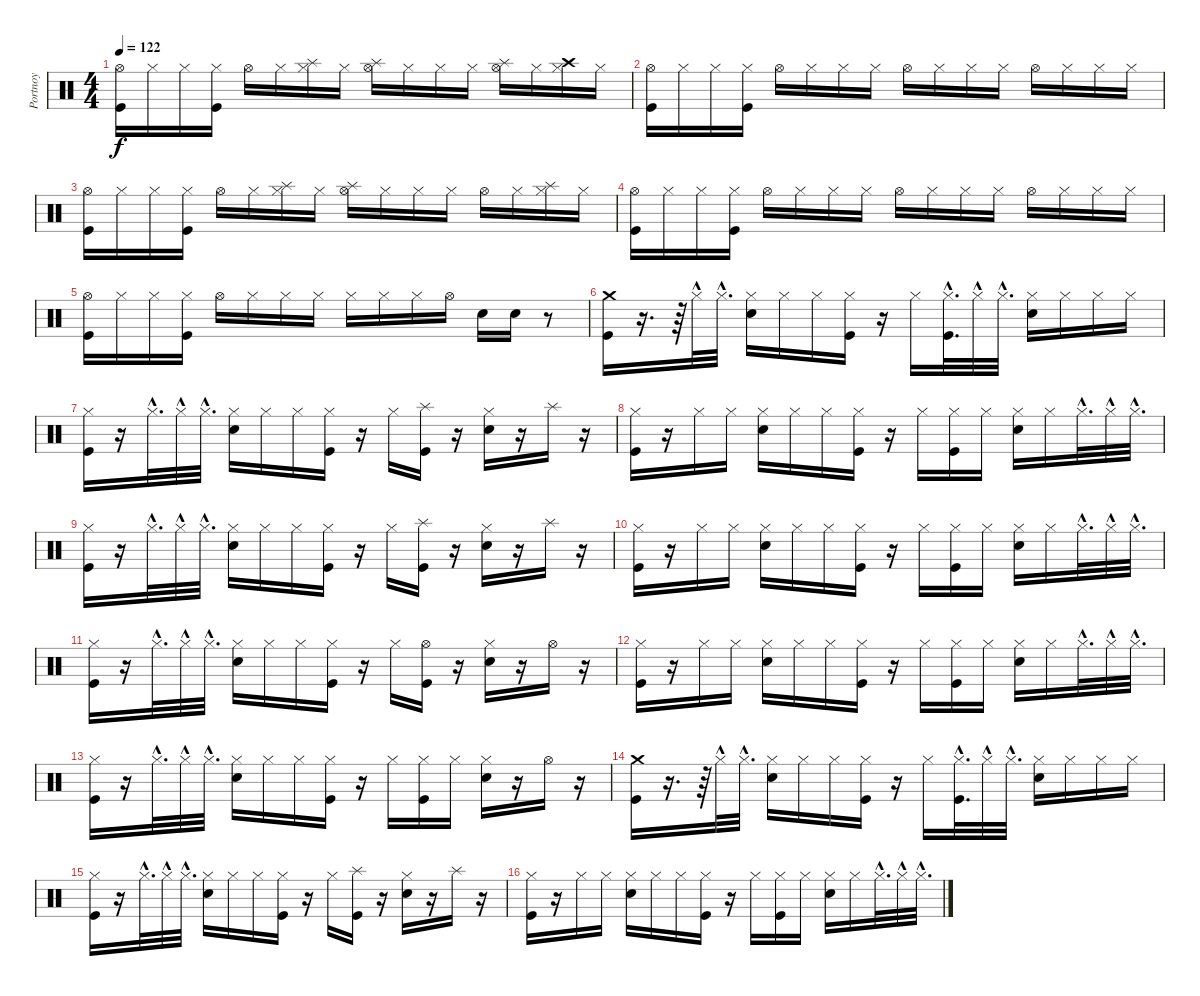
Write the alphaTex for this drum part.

\track ("Portnoy" "Portnoy") {instrument percussion}
\staff {score}
\articulation defaults
\ts (4 4)
\tempo 122
\clef neutral
\ks c
("Kick (hit)" "Hi-Hat (open)").16{dy f} "Hi-Hat (closed)".16 "Hi-Hat (closed)".16 ("Kick (hit)" "Hi-Hat (closed)").16 "Hi-Hat (open)".16 "Hi-Hat (closed)".16 ("Splash (hit)" "Hi-Hat (closed)").16 "Hi-Hat (closed)".16 ("Splash (hit)" "Hi-Hat (open)").16 "Hi-Hat (closed)".16 "Hi-Hat (closed)".16 "Hi-Hat (closed)".16 ("Splash (hit)" "Hi-Hat (open)").16 "Hi-Hat (closed)".16 ("Crash high (hit)" "Hi-Hat (closed)").16 "Hi-Hat (closed)".16 |
("Hi-Hat (open)" "Kick (hit)").16 "Hi-Hat (closed)".16 "Hi-Hat (closed)".16 ("Hi-Hat (closed)" "Kick (hit)").16 "Hi-Hat (open)".16 "Hi-Hat (closed)".16 "Hi-Hat (closed)".16 "Hi-Hat (closed)".16 "Hi-Hat (open)".16 "Hi-Hat (closed)".16 "Hi-Hat (closed)".16 "Hi-Hat (closed)".16 "Hi-Hat (open)".16 "Hi-Hat (closed)".16 "Hi-Hat (closed)".16 "Hi-Hat (closed)".16 |
("Kick (hit)" "Hi-Hat (open)").16 "Hi-Hat (closed)".16 "Hi-Hat (closed)".16 ("Kick (hit)" "Hi-Hat (closed)").16 "Hi-Hat (open)".16 "Hi-Hat (closed)".16 ("Splash (hit)" "Hi-Hat (closed)").16 "Hi-Hat (closed)".16 ("Splash (hit)" "Hi-Hat (open)").16 "Hi-Hat (closed)".16 "Hi-Hat (closed)".16 "Hi-Hat (closed)".16 "Hi-Hat (open)".16 "Hi-Hat (closed)".16 ("Splash (hit)" "Hi-Hat (closed)").16 "Hi-Hat (closed)".16 |
("Hi-Hat (open)" "Kick (hit)").16 "Hi-Hat (closed)".16 "Hi-Hat (closed)".16 ("Hi-Hat (closed)" "Kick (hit)").16 "Hi-Hat (open)".16 "Hi-Hat (closed)".16 "Hi-Hat (closed)".16 "Hi-Hat (closed)".16 "Hi-Hat (open)".16 "Hi-Hat (closed)".16 "Hi-Hat (closed)".16 "Hi-Hat (closed)".16 "Hi-Hat (open)".16 "Hi-Hat (closed)".16 "Hi-Hat (closed)".16 "Hi-Hat (closed)".16 |
("Kick (hit)" "Hi-Hat (open)").16 "Hi-Hat (closed)".16 "Hi-Hat (closed)".16 ("Kick (hit)" "Hi-Hat (closed)").16 "Hi-Hat (open)".16 "Hi-Hat (closed)".16 "Hi-Hat (closed)".16 "Hi-Hat (closed)".16 "Hi-Hat (closed)".16 "Hi-Hat (closed)".16 "Hi-Hat (closed)".16 "Hi-Hat (open)".16 "Metronome (bell)".16 "Metronome (bell)".16 r.8 |
("Crash medium (hit)" "Kick (hit)").16 r.16{d} r.64 "Hi-Hat (closed)"{hac}.32 "Hi-Hat (closed)"{hac}.32{d} ("Metronome (bell)" "Hi-Hat (closed)").16 "Hi-Hat (closed)".16 "Hi-Hat (closed)".16 ("Hi-Hat (closed)" "Kick (hit)").16 r.16 "Hi-Hat (closed)".16 ("Hi-Hat (closed)"{hac} "Kick (hit)"{hac}).32{d} "Hi-Hat (closed)"{hac}.32 "Hi-Hat (closed)"{hac}.32{d} ("Metronome (bell)" "Hi-Hat (closed)").16 "Hi-Hat (closed)".16 "Hi-Hat (closed)".16 "Hi-Hat (closed)".16 |
("Hi-Hat (closed)" "Kick (hit)").16 r.16 "Hi-Hat (closed)"{hac}.32{d} "Hi-Hat (closed)"{hac}.32 "Hi-Hat (closed)"{hac}.32{d} ("Hi-Hat (closed)" "Metronome (bell)").16 "Hi-Hat (closed)".16 "Hi-Hat (closed)".16 ("Hi-Hat (closed)" "Kick (hit)").16 r.16 "Hi-Hat (closed)".16 ("Splash (hit)" "Kick (hit)").16 r.16 ("Hi-Hat (closed)" "Metronome (bell)").16 r.16 "Splash (hit)".16 r.16 |
("Hi-Hat (closed)" "Kick (hit)").16 r.16 "Hi-Hat (closed)".16 "Hi-Hat (closed)".16 ("Metronome (bell)" "Hi-Hat (closed)").16 "Hi-Hat (closed)".16 "Hi-Hat (closed)".16 ("Hi-Hat (closed)" "Kick (hit)").16 r.16 "Hi-Hat (closed)".16 ("Hi-Hat (closed)" "Kick (hit)").16 "Hi-Hat (closed)".16 ("Metronome (bell)" "Hi-Hat (closed)").16 "Hi-Hat (closed)".16 "Hi-Hat (closed)"{hac}.32{d} "Hi-Hat (closed)"{hac}.32 "Hi-Hat (closed)"{hac}.32{d} |
("Hi-Hat (closed)" "Kick (hit)").16 r.16 "Hi-Hat (closed)"{hac}.32{d} "Hi-Hat (closed)"{hac}.32 "Hi-Hat (closed)"{hac}.32{d} ("Hi-Hat (closed)" "Metronome (bell)").16 "Hi-Hat (closed)".16 "Hi-Hat (closed)".16 ("Hi-Hat (closed)" "Kick (hit)").16 r.16 "Hi-Hat (closed)".16 ("Splash (hit)" "Kick (hit)").16 r.16 ("Hi-Hat (closed)" "Metronome (bell)").16 r.16 "Splash (hit)".16 r.16 |
("Hi-Hat (closed)" "Kick (hit)").16 r.16 "Hi-Hat (closed)".16 "Hi-Hat (closed)".16 ("Metronome (bell)" "Hi-Hat (closed)").16 "Hi-Hat (closed)".16 "Hi-Hat (closed)".16 ("Hi-Hat (closed)" "Kick (hit)").16 r.16 "Hi-Hat (closed)".16 ("Hi-Hat (closed)" "Kick (hit)").16 "Hi-Hat (closed)".16 ("Metronome (bell)" "Hi-Hat (closed)").16 "Hi-Hat (closed)".16 "Hi-Hat (closed)"{hac}.32{d} "Hi-Hat (closed)"{hac}.32 "Hi-Hat (closed)"{hac}.32{d} |
("Hi-Hat (closed)" "Kick (hit)").16 r.16 "Hi-Hat (closed)"{hac}.32{d} "Hi-Hat (closed)"{hac}.32 "Hi-Hat (closed)"{hac}.32{d} ("Hi-Hat (closed)" "Metronome (bell)").16 "Hi-Hat (closed)".16 "Hi-Hat (closed)".16 ("Hi-Hat (closed)" "Kick (hit)").16 r.16 "Hi-Hat (closed)".16 ("Hi-Hat (open)" "Kick (hit)").16 r.16 ("Hi-Hat (closed)" "Metronome (bell)").16 r.16 "Hi-Hat (open)".16 r.16 |
("Hi-Hat (closed)" "Kick (hit)").16 r.16 "Hi-Hat (closed)".16 "Hi-Hat (closed)".16 ("Metronome (bell)" "Hi-Hat (closed)").16 "Hi-Hat (closed)".16 "Hi-Hat (closed)".16 ("Hi-Hat (closed)" "Kick (hit)").16 r.16 "Hi-Hat (closed)".16 ("Hi-Hat (closed)" "Kick (hit)").16 "Hi-Hat (closed)".16 ("Metronome (bell)" "Hi-Hat (closed)").16 "Hi-Hat (closed)".16 "Hi-Hat (closed)"{hac}.32{d} "Hi-Hat (closed)"{hac}.32 "Hi-Hat (closed)"{hac}.32{d} |
("Hi-Hat (closed)" "Kick (hit)").16 r.16 "Hi-Hat (closed)"{hac}.32{d} "Hi-Hat (closed)"{hac}.32 "Hi-Hat (closed)"{hac}.32{d} ("Hi-Hat (closed)" "Metronome (bell)").16 "Hi-Hat (closed)".16 "Hi-Hat (closed)".16 ("Hi-Hat (closed)" "Kick (hit)").16 r.16 "Hi-Hat (closed)".16 ("Hi-Hat (closed)" "Kick (hit)").16 "Hi-Hat (closed)".16 ("Hi-Hat (closed)" "Metronome (bell)").16 r.16 "Hi-Hat (open)".16 r.16 |
("Crash medium (hit)" "Kick (hit)").16 r.16{d} r.64 "Hi-Hat (closed)"{hac}.32 "Hi-Hat (closed)"{hac}.32{d} ("Metronome (bell)" "Hi-Hat (closed)").16 "Hi-Hat (closed)".16 "Hi-Hat (closed)".16 ("Hi-Hat (closed)" "Kick (hit)").16 r.16 "Hi-Hat (closed)".16 ("Hi-Hat (closed)"{hac} "Kick (hit)"{hac}).32{d} "Hi-Hat (closed)"{hac}.32 "Hi-Hat (closed)"{hac}.32{d} ("Metronome (bell)" "Hi-Hat (closed)").16 "Hi-Hat (closed)".16 "Hi-Hat (closed)".16 "Hi-Hat (closed)".16 |
("Hi-Hat (closed)" "Kick (hit)").16 r.16 "Hi-Hat (closed)"{hac}.32{d} "Hi-Hat (closed)"{hac}.32 "Hi-Hat (closed)"{hac}.32{d} ("Hi-Hat (closed)" "Metronome (bell)").16 "Hi-Hat (closed)".16 "Hi-Hat (closed)".16 ("Hi-Hat (closed)" "Kick (hit)").16 r.16 "Hi-Hat (closed)".16 ("Splash (hit)" "Kick (hit)").16 r.16 ("Hi-Hat (closed)" "Metronome (bell)").16 r.16 "Splash (hit)".16 r.16 |
("Hi-Hat (closed)" "Kick (hit)").16 r.16 "Hi-Hat (closed)".16 "Hi-Hat (closed)".16 ("Metronome (bell)" "Hi-Hat (closed)").16 "Hi-Hat (closed)".16 "Hi-Hat (closed)".16 ("Hi-Hat (closed)" "Kick (hit)").16 r.16 "Hi-Hat (closed)".16 ("Hi-Hat (closed)" "Kick (hit)").16 "Hi-Hat (closed)".16 ("Metronome (bell)" "Hi-Hat (closed)").16 "Hi-Hat (closed)".16 "Hi-Hat (closed)"{hac}.32{d} "Hi-Hat (closed)"{hac}.32 "Hi-Hat (closed)"{hac}.32{d}
